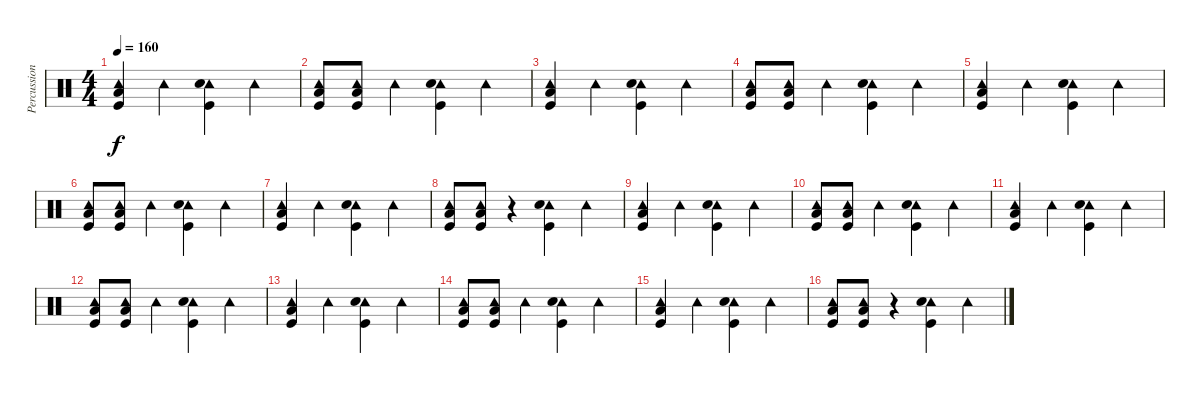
\track ("Percussions" "Percussion") {instrument percussion}
\staff {score}
\articulation defaults
\ts (4 4)
\tempo 160
\clef neutral
\ks c
("Tambourine (hit)" "Low Floor Tom (hit)" "Kick (hit)").4{dy f} "Tambourine (hit)".4 ("Kick (hit)" "Tambourine (hit)" "Electric Snare (hit)").4 "Tambourine (hit)".4 |
("Tambourine (hit)" "Low Floor Tom (hit)" "Kick (hit)").8 ("Tambourine (hit)" "Low Floor Tom (hit)" "Kick (hit)").8 "Tambourine (hit)".4 ("Tambourine (hit)" "Electric Snare (hit)" "Kick (hit)").4 "Tambourine (hit)".4 |
("Tambourine (hit)" "Low Floor Tom (hit)" "Kick (hit)").4 "Tambourine (hit)".4 ("Kick (hit)" "Tambourine (hit)" "Electric Snare (hit)").4 "Tambourine (hit)".4 |
("Tambourine (hit)" "Low Floor Tom (hit)" "Kick (hit)").8 ("Tambourine (hit)" "Low Floor Tom (hit)" "Kick (hit)").8 "Tambourine (hit)".4 ("Tambourine (hit)" "Electric Snare (hit)" "Kick (hit)").4 "Tambourine (hit)".4 |
("Tambourine (hit)" "Low Floor Tom (hit)" "Kick (hit)").4 "Tambourine (hit)".4 ("Kick (hit)" "Tambourine (hit)" "Electric Snare (hit)").4 "Tambourine (hit)".4 |
("Tambourine (hit)" "Low Floor Tom (hit)" "Kick (hit)").8 ("Tambourine (hit)" "Low Floor Tom (hit)" "Kick (hit)").8 "Tambourine (hit)".4 ("Tambourine (hit)" "Electric Snare (hit)" "Kick (hit)").4 "Tambourine (hit)".4 |
("Tambourine (hit)" "Low Floor Tom (hit)" "Kick (hit)").4 "Tambourine (hit)".4 ("Kick (hit)" "Tambourine (hit)" "Electric Snare (hit)").4 "Tambourine (hit)".4 |
("Tambourine (hit)" "Low Floor Tom (hit)" "Kick (hit)").8 ("Tambourine (hit)" "Low Floor Tom (hit)" "Kick (hit)").8 r.4 ("Tambourine (hit)" "Electric Snare (hit)" "Kick (hit)").4 "Tambourine (hit)".4 |
("Tambourine (hit)" "Low Floor Tom (hit)" "Kick (hit)").4 "Tambourine (hit)".4 ("Kick (hit)" "Tambourine (hit)" "Electric Snare (hit)").4 "Tambourine (hit)".4 |
("Tambourine (hit)" "Low Floor Tom (hit)" "Kick (hit)").8 ("Tambourine (hit)" "Low Floor Tom (hit)" "Kick (hit)").8 "Tambourine (hit)".4 ("Tambourine (hit)" "Electric Snare (hit)" "Kick (hit)").4 "Tambourine (hit)".4 |
("Tambourine (hit)" "Low Floor Tom (hit)" "Kick (hit)").4 "Tambourine (hit)".4 ("Kick (hit)" "Tambourine (hit)" "Electric Snare (hit)").4 "Tambourine (hit)".4 |
("Tambourine (hit)" "Low Floor Tom (hit)" "Kick (hit)").8 ("Tambourine (hit)" "Low Floor Tom (hit)" "Kick (hit)").8 "Tambourine (hit)".4 ("Tambourine (hit)" "Electric Snare (hit)" "Kick (hit)").4 "Tambourine (hit)".4 |
("Tambourine (hit)" "Low Floor Tom (hit)" "Kick (hit)").4 "Tambourine (hit)".4 ("Kick (hit)" "Tambourine (hit)" "Electric Snare (hit)").4 "Tambourine (hit)".4 |
("Tambourine (hit)" "Low Floor Tom (hit)" "Kick (hit)").8 ("Tambourine (hit)" "Low Floor Tom (hit)" "Kick (hit)").8 "Tambourine (hit)".4 ("Tambourine (hit)" "Electric Snare (hit)" "Kick (hit)").4 "Tambourine (hit)".4 |
("Tambourine (hit)" "Low Floor Tom (hit)" "Kick (hit)").4 "Tambourine (hit)".4 ("Kick (hit)" "Tambourine (hit)" "Electric Snare (hit)").4 "Tambourine (hit)".4 |
("Tambourine (hit)" "Low Floor Tom (hit)" "Kick (hit)").8 ("Tambourine (hit)" "Low Floor Tom (hit)" "Kick (hit)").8 r.4 ("Tambourine (hit)" "Electric Snare (hit)" "Kick (hit)").4 "Tambourine (hit)".4
